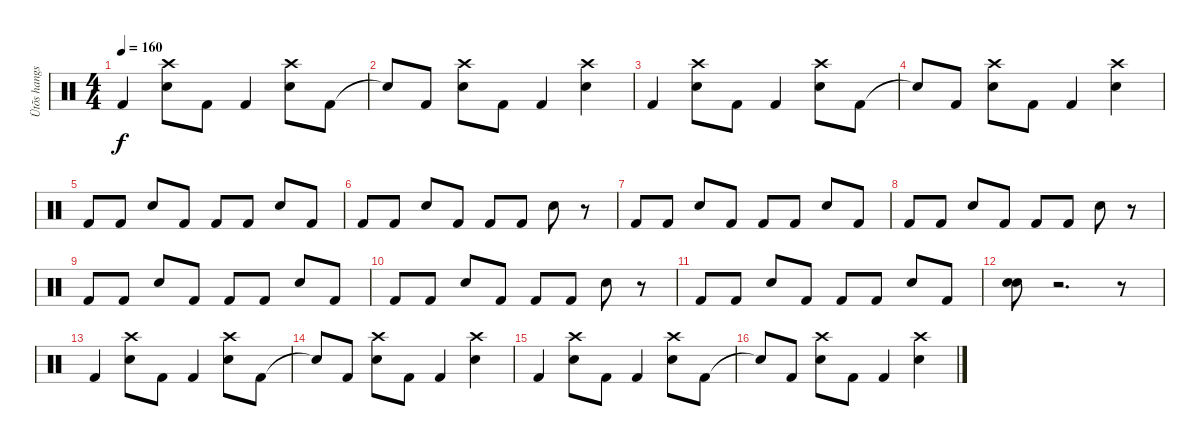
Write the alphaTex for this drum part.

\track ("Ütõs hangszer" "Ütõs hangs") {instrument percussion}
\staff {score}
\articulation defaults
\ts (4 4)
\tempo 160
\clef neutral
\ks c "Kick (hit) 2".4{dy f}
("Crash high (hit)" "Electric Snare (hit)").8 "Kick (hit) 2".8 "Kick (hit) 2".4 ("Crash high (hit)" "Electric Snare (hit)").8 "Kick (hit) 2".8 |
"Snare (hit)"{t}.8 "Kick (hit) 2".8 ("Crash high (hit)" "Electric Snare (hit)").8 "Kick (hit) 2".8 "Kick (hit) 2".4 ("Crash high (hit)" "Electric Snare (hit)").4 |
"Kick (hit) 2".4 ("Crash high (hit)" "Electric Snare (hit)").8 "Kick (hit) 2".8 "Kick (hit) 2".4 ("Crash high (hit)" "Electric Snare (hit)").8 "Kick (hit) 2".8 |
"Snare (hit)"{t}.8 "Kick (hit) 2".8 ("Crash high (hit)" "Electric Snare (hit)").8 "Kick (hit) 2".8 "Kick (hit) 2".4 ("Crash high (hit)" "Electric Snare (hit)").4 |
"Kick (hit) 2".8 "Kick (hit) 2".8 "Electric Snare (hit)".8 "Kick (hit) 2".8 "Kick (hit) 2".8 "Kick (hit) 2".8 "Electric Snare (hit)".8 "Kick (hit) 2".8 |
"Kick (hit) 2".8 "Kick (hit) 2".8 "Electric Snare (hit)".8 "Kick (hit) 2".8 "Kick (hit) 2".8 "Kick (hit) 2".8 "Electric Snare (hit)".8 r.8 |
"Kick (hit) 2".8 "Kick (hit) 2".8 "Electric Snare (hit)".8 "Kick (hit) 2".8 "Kick (hit) 2".8 "Kick (hit) 2".8 "Electric Snare (hit)".8 "Kick (hit) 2".8 |
"Kick (hit) 2".8 "Kick (hit) 2".8 "Electric Snare (hit)".8 "Kick (hit) 2".8 "Kick (hit) 2".8 "Kick (hit) 2".8 "Electric Snare (hit)".8 r.8 |
"Kick (hit) 2".8 "Kick (hit) 2".8 "Electric Snare (hit)".8 "Kick (hit) 2".8 "Kick (hit) 2".8 "Kick (hit) 2".8 "Electric Snare (hit)".8 "Kick (hit) 2".8 |
"Kick (hit) 2".8 "Kick (hit) 2".8 "Electric Snare (hit)".8 "Kick (hit) 2".8 "Kick (hit) 2".8 "Kick (hit) 2".8 "Electric Snare (hit)".8 r.8 |
"Kick (hit) 2".8 "Kick (hit) 2".8 "Electric Snare (hit)".8 "Kick (hit) 2".8 "Kick (hit) 2".8 "Kick (hit) 2".8 "Electric Snare (hit)".8 "Kick (hit) 2".8 |
("Electric Snare (hit)" "Electric Snare (hit)").8 r.2{d} r.8 |
"Kick (hit) 2".4 ("Crash high (hit)" "Electric Snare (hit)").8 "Kick (hit) 2".8 "Kick (hit) 2".4 ("Crash high (hit)" "Electric Snare (hit)").8 "Kick (hit) 2".8 |
"Snare (hit)"{t}.8 "Kick (hit) 2".8 ("Crash high (hit)" "Electric Snare (hit)").8 "Kick (hit) 2".8 "Kick (hit) 2".4 ("Crash high (hit)" "Electric Snare (hit)").4 |
"Kick (hit) 2".4 ("Crash high (hit)" "Electric Snare (hit)").8 "Kick (hit) 2".8 "Kick (hit) 2".4 ("Crash high (hit)" "Electric Snare (hit)").8 "Kick (hit) 2".8 |
"Snare (hit)"{t}.8 "Kick (hit) 2".8 ("Crash high (hit)" "Electric Snare (hit)").8 "Kick (hit) 2".8 "Kick (hit) 2".4 ("Crash high (hit)" "Electric Snare (hit)").4
